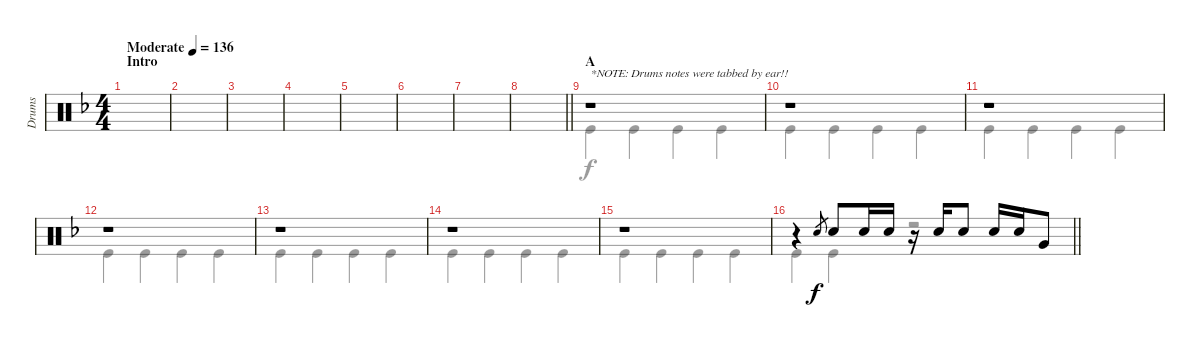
\track ("Drums" "Drums") {instrument percussion}
\staff {score}
\articulation defaults
\voice
\ts (4 4)
\section ("" "Intro")
\tempo (136 "Moderate")
\clef neutral
\ks f
|
|
|
|
|
|
|
\barLineRight lightlight
|
\section ("" "A")
r.1{txt "*NOTE: Drums notes were tabbed by ear!!"} |
r.1 |
r.1 |
r.1 |
r.1 |
r.1 |
r.1 |
\barLineRight lightlight
r.4 "Snare (hit) 2".8{gr} "Snare (hit) 2".8 "Snare (hit) 2".16 "Snare (hit) 2".16 r.16 "Snare (hit) 2".16 "Snare (hit) 2".8 "Snare (hit) 2".16 "Snare (hit) 2".16 "Very Low Tom (hit)".8
\voice
\clef neutral
\ottava regular
\simile none
\ks f
|
|
|
|
|
|
|
\barLineRight lightlight
|
"Kick (hit)".4 "Kick (hit)".4 "Kick (hit)".4 "Kick (hit)".4 |
"Kick (hit)".4 "Kick (hit)".4 "Kick (hit)".4 "Kick (hit)".4 |
"Kick (hit)".4 "Kick (hit)".4 "Kick (hit)".4 "Kick (hit)".4 |
"Kick (hit)".4 "Kick (hit)".4 "Kick (hit)".4 "Kick (hit)".4 |
"Kick (hit)".4 "Kick (hit)".4 "Kick (hit)".4 "Kick (hit)".4 |
"Kick (hit)".4 "Kick (hit)".4 "Kick (hit)".4 "Kick (hit)".4 |
"Kick (hit)".4 "Kick (hit)".4 "Kick (hit)".4 "Kick (hit)".4 |
\barLineRight lightlight "Kick (hit)".4 "Kick (hit)".4
r.2
